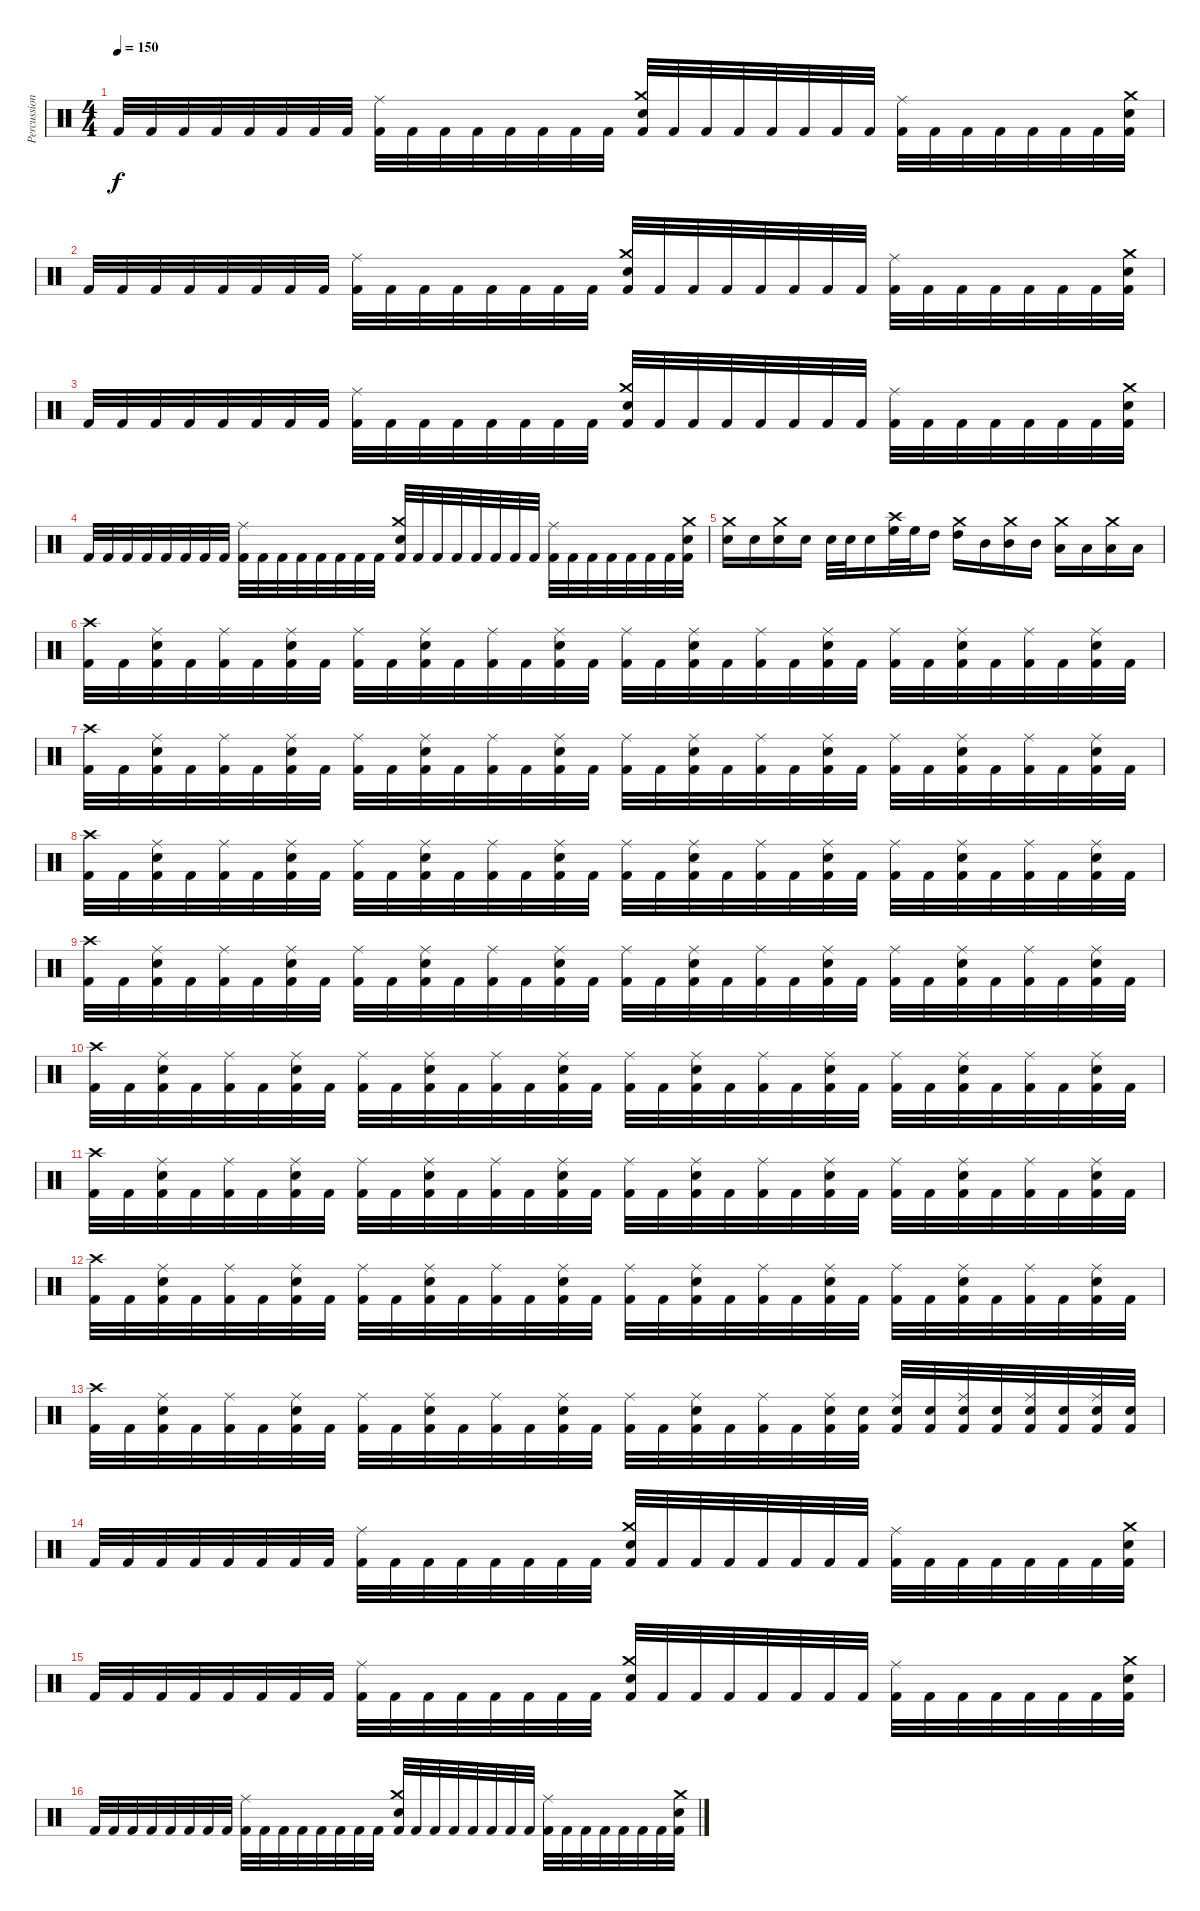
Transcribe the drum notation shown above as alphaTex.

\track ("Percussions" "Percussion") {instrument percussion}
\staff {score}
\articulation defaults
\ts (4 4)
\tempo 150
\clef neutral
\ks c "Kick (hit) 2".32{dy f} "Kick (hit) 2".32 "Kick (hit) 2".32 "Kick (hit) 2".32 "Kick (hit) 2".32 "Kick (hit) 2".32 "Kick (hit) 2".32 "Kick (hit) 2".32
("Ride (middle)" "Kick (hit) 2").32 "Kick (hit) 2".32 "Kick (hit) 2".32 "Kick (hit) 2".32 "Kick (hit) 2".32 "Kick (hit) 2".32 "Kick (hit) 2".32 "Kick (hit) 2".32 ("Crash medium (hit)" "Electric Snare (hit)" "Kick (hit) 2").32 "Kick (hit) 2".32 "Kick (hit) 2".32 "Kick (hit) 2".32 "Kick (hit) 2".32 "Kick (hit) 2".32 "Kick (hit) 2".32 "Kick (hit) 2".32 ("Ride (middle)" "Kick (hit) 2").32 "Kick (hit) 2".32 "Kick (hit) 2".32 "Kick (hit) 2".32 "Kick (hit) 2".32 "Kick (hit) 2".32 "Kick (hit) 2".32 ("Crash medium (hit)" "Electric Snare (hit)" "Kick (hit) 2").32 |
"Kick (hit) 2".32 "Kick (hit) 2".32 "Kick (hit) 2".32 "Kick (hit) 2".32 "Kick (hit) 2".32 "Kick (hit) 2".32 "Kick (hit) 2".32 "Kick (hit) 2".32 ("Ride (middle)" "Kick (hit) 2").32 "Kick (hit) 2".32 "Kick (hit) 2".32 "Kick (hit) 2".32 "Kick (hit) 2".32 "Kick (hit) 2".32 "Kick (hit) 2".32 "Kick (hit) 2".32 ("Crash medium (hit)" "Electric Snare (hit)" "Kick (hit) 2").32 "Kick (hit) 2".32 "Kick (hit) 2".32 "Kick (hit) 2".32 "Kick (hit) 2".32 "Kick (hit) 2".32 "Kick (hit) 2".32 "Kick (hit) 2".32 ("Ride (middle)" "Kick (hit) 2").32 "Kick (hit) 2".32 "Kick (hit) 2".32 "Kick (hit) 2".32 "Kick (hit) 2".32 "Kick (hit) 2".32 "Kick (hit) 2".32 ("Crash medium (hit)" "Electric Snare (hit)" "Kick (hit) 2").32 |
"Kick (hit) 2".32 "Kick (hit) 2".32 "Kick (hit) 2".32 "Kick (hit) 2".32 "Kick (hit) 2".32 "Kick (hit) 2".32 "Kick (hit) 2".32 "Kick (hit) 2".32 ("Ride (middle)" "Kick (hit) 2").32 "Kick (hit) 2".32 "Kick (hit) 2".32 "Kick (hit) 2".32 "Kick (hit) 2".32 "Kick (hit) 2".32 "Kick (hit) 2".32 "Kick (hit) 2".32 ("Crash medium (hit)" "Electric Snare (hit)" "Kick (hit) 2").32 "Kick (hit) 2".32 "Kick (hit) 2".32 "Kick (hit) 2".32 "Kick (hit) 2".32 "Kick (hit) 2".32 "Kick (hit) 2".32 "Kick (hit) 2".32 ("Ride (middle)" "Kick (hit) 2").32 "Kick (hit) 2".32 "Kick (hit) 2".32 "Kick (hit) 2".32 "Kick (hit) 2".32 "Kick (hit) 2".32 "Kick (hit) 2".32 ("Crash medium (hit)" "Electric Snare (hit)" "Kick (hit) 2").32 |
"Kick (hit) 2".32 "Kick (hit) 2".32 "Kick (hit) 2".32 "Kick (hit) 2".32 "Kick (hit) 2".32 "Kick (hit) 2".32 "Kick (hit) 2".32 "Kick (hit) 2".32 ("Ride (middle)" "Kick (hit) 2").32 "Kick (hit) 2".32 "Kick (hit) 2".32 "Kick (hit) 2".32 "Kick (hit) 2".32 "Kick (hit) 2".32 "Kick (hit) 2".32 "Kick (hit) 2".32 ("Crash medium (hit)" "Electric Snare (hit)" "Kick (hit) 2").32 "Kick (hit) 2".32 "Kick (hit) 2".32 "Kick (hit) 2".32 "Kick (hit) 2".32 "Kick (hit) 2".32 "Kick (hit) 2".32 "Kick (hit) 2".32 ("Ride (middle)" "Kick (hit) 2").32 "Kick (hit) 2".32 "Kick (hit) 2".32 "Kick (hit) 2".32 "Kick (hit) 2".32 "Kick (hit) 2".32 "Kick (hit) 2".32 ("Crash medium (hit)" "Electric Snare (hit)" "Kick (hit) 2").32 |
("Electric Snare (hit)" "Crash medium (hit)").16 "Electric Snare (hit)".16 ("Electric Snare (hit)" "Crash medium (hit)").16 "Electric Snare (hit)".16 "Electric Snare (hit)".32 "Electric Snare (hit)".32 "Electric Snare (hit)".16 ("High Floor Tom (hit)" "Crash high (hit)").32 "High Floor Tom (hit)".32 "High Tom (hit)".16 ("High Tom (hit)" "Crash medium (hit)").16 "Mid Tom (hit)".16 ("Mid Tom (hit)" "Crash medium (hit)").16 "Mid Tom (hit)".16 ("Low Tom (hit)" "Crash medium (hit)").16 "Low Tom (hit)".16 ("Low Tom (hit)" "Crash medium (hit)").16 "Low Tom (hit)".16 |
("Crash high (hit)" "Kick (hit) 2").32 "Kick (hit) 2".32 ("Ride (middle)" "Electric Snare (hit)" "Kick (hit) 2").32 "Kick (hit) 2".32 ("Ride (middle)" "Kick (hit) 2").32 "Kick (hit) 2".32 ("Ride (middle)" "Electric Snare (hit)" "Kick (hit) 2").32 "Kick (hit) 2".32 ("Ride (middle)" "Kick (hit) 2").32 "Kick (hit) 2".32 ("Ride (middle)" "Electric Snare (hit)" "Kick (hit) 2").32 "Kick (hit) 2".32 ("Ride (middle)" "Kick (hit) 2").32 "Kick (hit) 2".32 ("Ride (middle)" "Electric Snare (hit)" "Kick (hit) 2").32 "Kick (hit) 2".32 ("Ride (middle)" "Kick (hit) 2").32 "Kick (hit) 2".32 ("Ride (middle)" "Electric Snare (hit)" "Kick (hit) 2").32 "Kick (hit) 2".32 ("Ride (middle)" "Kick (hit) 2").32 "Kick (hit) 2".32 ("Ride (middle)" "Electric Snare (hit)" "Kick (hit) 2").32 "Kick (hit) 2".32 ("Ride (middle)" "Kick (hit) 2").32 "Kick (hit) 2".32 ("Ride (middle)" "Electric Snare (hit)" "Kick (hit) 2").32 "Kick (hit) 2".32 ("Ride (middle)" "Kick (hit) 2").32 "Kick (hit) 2".32 ("Ride (middle)" "Electric Snare (hit)" "Kick (hit) 2").32 "Kick (hit) 2".32 |
("Crash high (hit)" "Kick (hit) 2").32 "Kick (hit) 2".32 ("Ride (middle)" "Electric Snare (hit)" "Kick (hit) 2").32 "Kick (hit) 2".32 ("Ride (middle)" "Kick (hit) 2").32 "Kick (hit) 2".32 ("Ride (middle)" "Electric Snare (hit)" "Kick (hit) 2").32 "Kick (hit) 2".32 ("Ride (middle)" "Kick (hit) 2").32 "Kick (hit) 2".32 ("Ride (middle)" "Electric Snare (hit)" "Kick (hit) 2").32 "Kick (hit) 2".32 ("Ride (middle)" "Kick (hit) 2").32 "Kick (hit) 2".32 ("Ride (middle)" "Electric Snare (hit)" "Kick (hit) 2").32 "Kick (hit) 2".32 ("Ride (middle)" "Kick (hit) 2").32 "Kick (hit) 2".32 ("Ride (middle)" "Electric Snare (hit)" "Kick (hit) 2").32 "Kick (hit) 2".32 ("Ride (middle)" "Kick (hit) 2").32 "Kick (hit) 2".32 ("Ride (middle)" "Electric Snare (hit)" "Kick (hit) 2").32 "Kick (hit) 2".32 ("Ride (middle)" "Kick (hit) 2").32 "Kick (hit) 2".32 ("Ride (middle)" "Electric Snare (hit)" "Kick (hit) 2").32 "Kick (hit) 2".32 ("Ride (middle)" "Kick (hit) 2").32 "Kick (hit) 2".32 ("Ride (middle)" "Electric Snare (hit)" "Kick (hit) 2").32 "Kick (hit) 2".32 |
("Crash high (hit)" "Kick (hit) 2").32 "Kick (hit) 2".32 ("Ride (middle)" "Electric Snare (hit)" "Kick (hit) 2").32 "Kick (hit) 2".32 ("Ride (middle)" "Kick (hit) 2").32 "Kick (hit) 2".32 ("Ride (middle)" "Electric Snare (hit)" "Kick (hit) 2").32 "Kick (hit) 2".32 ("Ride (middle)" "Kick (hit) 2").32 "Kick (hit) 2".32 ("Ride (middle)" "Electric Snare (hit)" "Kick (hit) 2").32 "Kick (hit) 2".32 ("Ride (middle)" "Kick (hit) 2").32 "Kick (hit) 2".32 ("Ride (middle)" "Electric Snare (hit)" "Kick (hit) 2").32 "Kick (hit) 2".32 ("Ride (middle)" "Kick (hit) 2").32 "Kick (hit) 2".32 ("Ride (middle)" "Electric Snare (hit)" "Kick (hit) 2").32 "Kick (hit) 2".32 ("Ride (middle)" "Kick (hit) 2").32 "Kick (hit) 2".32 ("Ride (middle)" "Electric Snare (hit)" "Kick (hit) 2").32 "Kick (hit) 2".32 ("Ride (middle)" "Kick (hit) 2").32 "Kick (hit) 2".32 ("Ride (middle)" "Electric Snare (hit)" "Kick (hit) 2").32 "Kick (hit) 2".32 ("Ride (middle)" "Kick (hit) 2").32 "Kick (hit) 2".32 ("Ride (middle)" "Electric Snare (hit)" "Kick (hit) 2").32 "Kick (hit) 2".32 |
("Crash high (hit)" "Kick (hit) 2").32 "Kick (hit) 2".32 ("Ride (middle)" "Electric Snare (hit)" "Kick (hit) 2").32 "Kick (hit) 2".32 ("Ride (middle)" "Kick (hit) 2").32 "Kick (hit) 2".32 ("Ride (middle)" "Electric Snare (hit)" "Kick (hit) 2").32 "Kick (hit) 2".32 ("Ride (middle)" "Kick (hit) 2").32 "Kick (hit) 2".32 ("Ride (middle)" "Electric Snare (hit)" "Kick (hit) 2").32 "Kick (hit) 2".32 ("Ride (middle)" "Kick (hit) 2").32 "Kick (hit) 2".32 ("Ride (middle)" "Electric Snare (hit)" "Kick (hit) 2").32 "Kick (hit) 2".32 ("Ride (middle)" "Kick (hit) 2").32 "Kick (hit) 2".32 ("Ride (middle)" "Electric Snare (hit)" "Kick (hit) 2").32 "Kick (hit) 2".32 ("Ride (middle)" "Kick (hit) 2").32 "Kick (hit) 2".32 ("Ride (middle)" "Electric Snare (hit)" "Kick (hit) 2").32 "Kick (hit) 2".32 ("Ride (middle)" "Kick (hit) 2").32 "Kick (hit) 2".32 ("Ride (middle)" "Electric Snare (hit)" "Kick (hit) 2").32 "Kick (hit) 2".32 ("Ride (middle)" "Kick (hit) 2").32 "Kick (hit) 2".32 ("Ride (middle)" "Electric Snare (hit)" "Kick (hit) 2").32 "Kick (hit) 2".32 |
("Crash high (hit)" "Kick (hit) 2").32 "Kick (hit) 2".32 ("Ride (middle)" "Electric Snare (hit)" "Kick (hit) 2").32 "Kick (hit) 2".32 ("Ride (middle)" "Kick (hit) 2").32 "Kick (hit) 2".32 ("Ride (middle)" "Electric Snare (hit)" "Kick (hit) 2").32 "Kick (hit) 2".32 ("Ride (middle)" "Kick (hit) 2").32 "Kick (hit) 2".32 ("Ride (middle)" "Electric Snare (hit)" "Kick (hit) 2").32 "Kick (hit) 2".32 ("Ride (middle)" "Kick (hit) 2").32 "Kick (hit) 2".32 ("Ride (middle)" "Electric Snare (hit)" "Kick (hit) 2").32 "Kick (hit) 2".32 ("Ride (middle)" "Kick (hit) 2").32 "Kick (hit) 2".32 ("Ride (middle)" "Electric Snare (hit)" "Kick (hit) 2").32 "Kick (hit) 2".32 ("Ride (middle)" "Kick (hit) 2").32 "Kick (hit) 2".32 ("Ride (middle)" "Electric Snare (hit)" "Kick (hit) 2").32 "Kick (hit) 2".32 ("Ride (middle)" "Kick (hit) 2").32 "Kick (hit) 2".32 ("Ride (middle)" "Electric Snare (hit)" "Kick (hit) 2").32 "Kick (hit) 2".32 ("Ride (middle)" "Kick (hit) 2").32 "Kick (hit) 2".32 ("Ride (middle)" "Electric Snare (hit)" "Kick (hit) 2").32 "Kick (hit) 2".32 |
("Crash high (hit)" "Kick (hit) 2").32 "Kick (hit) 2".32 ("Ride (middle)" "Electric Snare (hit)" "Kick (hit) 2").32 "Kick (hit) 2".32 ("Ride (middle)" "Kick (hit) 2").32 "Kick (hit) 2".32 ("Ride (middle)" "Electric Snare (hit)" "Kick (hit) 2").32 "Kick (hit) 2".32 ("Ride (middle)" "Kick (hit) 2").32 "Kick (hit) 2".32 ("Ride (middle)" "Electric Snare (hit)" "Kick (hit) 2").32 "Kick (hit) 2".32 ("Ride (middle)" "Kick (hit) 2").32 "Kick (hit) 2".32 ("Ride (middle)" "Electric Snare (hit)" "Kick (hit) 2").32 "Kick (hit) 2".32 ("Ride (middle)" "Kick (hit) 2").32 "Kick (hit) 2".32 ("Ride (middle)" "Electric Snare (hit)" "Kick (hit) 2").32 "Kick (hit) 2".32 ("Ride (middle)" "Kick (hit) 2").32 "Kick (hit) 2".32 ("Ride (middle)" "Electric Snare (hit)" "Kick (hit) 2").32 "Kick (hit) 2".32 ("Ride (middle)" "Kick (hit) 2").32 "Kick (hit) 2".32 ("Ride (middle)" "Electric Snare (hit)" "Kick (hit) 2").32 "Kick (hit) 2".32 ("Ride (middle)" "Kick (hit) 2").32 "Kick (hit) 2".32 ("Ride (middle)" "Electric Snare (hit)" "Kick (hit) 2").32 "Kick (hit) 2".32 |
("Crash high (hit)" "Kick (hit) 2").32 "Kick (hit) 2".32 ("Ride (middle)" "Electric Snare (hit)" "Kick (hit) 2").32 "Kick (hit) 2".32 ("Ride (middle)" "Kick (hit) 2").32 "Kick (hit) 2".32 ("Ride (middle)" "Electric Snare (hit)" "Kick (hit) 2").32 "Kick (hit) 2".32 ("Ride (middle)" "Kick (hit) 2").32 "Kick (hit) 2".32 ("Ride (middle)" "Electric Snare (hit)" "Kick (hit) 2").32 "Kick (hit) 2".32 ("Ride (middle)" "Kick (hit) 2").32 "Kick (hit) 2".32 ("Ride (middle)" "Electric Snare (hit)" "Kick (hit) 2").32 "Kick (hit) 2".32 ("Ride (middle)" "Kick (hit) 2").32 "Kick (hit) 2".32 ("Ride (middle)" "Electric Snare (hit)" "Kick (hit) 2").32 "Kick (hit) 2".32 ("Ride (middle)" "Kick (hit) 2").32 "Kick (hit) 2".32 ("Ride (middle)" "Electric Snare (hit)" "Kick (hit) 2").32 "Kick (hit) 2".32 ("Ride (middle)" "Kick (hit) 2").32 "Kick (hit) 2".32 ("Ride (middle)" "Electric Snare (hit)" "Kick (hit) 2").32 "Kick (hit) 2".32 ("Ride (middle)" "Kick (hit) 2").32 "Kick (hit) 2".32 ("Ride (middle)" "Electric Snare (hit)" "Kick (hit) 2").32 "Kick (hit) 2".32 |
("Crash high (hit)" "Kick (hit) 2").32 "Kick (hit) 2".32 ("Ride (middle)" "Electric Snare (hit)" "Kick (hit) 2").32 "Kick (hit) 2".32 ("Ride (middle)" "Kick (hit) 2").32 "Kick (hit) 2".32 ("Ride (middle)" "Electric Snare (hit)" "Kick (hit) 2").32 "Kick (hit) 2".32 ("Ride (middle)" "Kick (hit) 2").32 "Kick (hit) 2".32 ("Ride (middle)" "Electric Snare (hit)" "Kick (hit) 2").32 "Kick (hit) 2".32 ("Ride (middle)" "Kick (hit) 2").32 "Kick (hit) 2".32 ("Ride (middle)" "Electric Snare (hit)" "Kick (hit) 2").32 "Kick (hit) 2".32 ("Ride (middle)" "Kick (hit) 2").32 "Kick (hit) 2".32 ("Ride (middle)" "Electric Snare (hit)" "Kick (hit) 2").32 "Kick (hit) 2".32 ("Ride (middle)" "Kick (hit) 2").32 "Kick (hit) 2".32 ("Ride (middle)" "Electric Snare (hit)" "Kick (hit) 2").32 ("Electric Snare (hit)" "Kick (hit) 2").32 ("Ride (middle)" "Electric Snare (hit)" "Kick (hit) 2").32 ("Electric Snare (hit)" "Kick (hit) 2").32 ("Ride (middle)" "Electric Snare (hit)" "Kick (hit) 2").32 ("Electric Snare (hit)" "Kick (hit) 2").32 ("Ride (middle)" "Electric Snare (hit)" "Kick (hit) 2").32 ("Electric Snare (hit)" "Kick (hit) 2").32 ("Ride (middle)" "Electric Snare (hit)" "Kick (hit) 2").32 ("Electric Snare (hit)" "Kick (hit) 2").32 |
"Kick (hit) 2".32 "Kick (hit) 2".32 "Kick (hit) 2".32 "Kick (hit) 2".32 "Kick (hit) 2".32 "Kick (hit) 2".32 "Kick (hit) 2".32 "Kick (hit) 2".32 ("Ride (middle)" "Kick (hit) 2").32 "Kick (hit) 2".32 "Kick (hit) 2".32 "Kick (hit) 2".32 "Kick (hit) 2".32 "Kick (hit) 2".32 "Kick (hit) 2".32 "Kick (hit) 2".32 ("Crash medium (hit)" "Electric Snare (hit)" "Kick (hit) 2").32 "Kick (hit) 2".32 "Kick (hit) 2".32 "Kick (hit) 2".32 "Kick (hit) 2".32 "Kick (hit) 2".32 "Kick (hit) 2".32 "Kick (hit) 2".32 ("Ride (middle)" "Kick (hit) 2").32 "Kick (hit) 2".32 "Kick (hit) 2".32 "Kick (hit) 2".32 "Kick (hit) 2".32 "Kick (hit) 2".32 "Kick (hit) 2".32 ("Crash medium (hit)" "Electric Snare (hit)" "Kick (hit) 2").32 |
"Kick (hit) 2".32 "Kick (hit) 2".32 "Kick (hit) 2".32 "Kick (hit) 2".32 "Kick (hit) 2".32 "Kick (hit) 2".32 "Kick (hit) 2".32 "Kick (hit) 2".32 ("Ride (middle)" "Kick (hit) 2").32 "Kick (hit) 2".32 "Kick (hit) 2".32 "Kick (hit) 2".32 "Kick (hit) 2".32 "Kick (hit) 2".32 "Kick (hit) 2".32 "Kick (hit) 2".32 ("Crash medium (hit)" "Electric Snare (hit)" "Kick (hit) 2").32 "Kick (hit) 2".32 "Kick (hit) 2".32 "Kick (hit) 2".32 "Kick (hit) 2".32 "Kick (hit) 2".32 "Kick (hit) 2".32 "Kick (hit) 2".32 ("Ride (middle)" "Kick (hit) 2").32 "Kick (hit) 2".32 "Kick (hit) 2".32 "Kick (hit) 2".32 "Kick (hit) 2".32 "Kick (hit) 2".32 "Kick (hit) 2".32 ("Crash medium (hit)" "Electric Snare (hit)" "Kick (hit) 2").32 |
"Kick (hit) 2".32 "Kick (hit) 2".32 "Kick (hit) 2".32 "Kick (hit) 2".32 "Kick (hit) 2".32 "Kick (hit) 2".32 "Kick (hit) 2".32 "Kick (hit) 2".32 ("Ride (middle)" "Kick (hit) 2").32 "Kick (hit) 2".32 "Kick (hit) 2".32 "Kick (hit) 2".32 "Kick (hit) 2".32 "Kick (hit) 2".32 "Kick (hit) 2".32 "Kick (hit) 2".32 ("Crash medium (hit)" "Electric Snare (hit)" "Kick (hit) 2").32 "Kick (hit) 2".32 "Kick (hit) 2".32 "Kick (hit) 2".32 "Kick (hit) 2".32 "Kick (hit) 2".32 "Kick (hit) 2".32 "Kick (hit) 2".32 ("Ride (middle)" "Kick (hit) 2").32 "Kick (hit) 2".32 "Kick (hit) 2".32 "Kick (hit) 2".32 "Kick (hit) 2".32 "Kick (hit) 2".32 "Kick (hit) 2".32 ("Crash medium (hit)" "Electric Snare (hit)" "Kick (hit) 2").32
